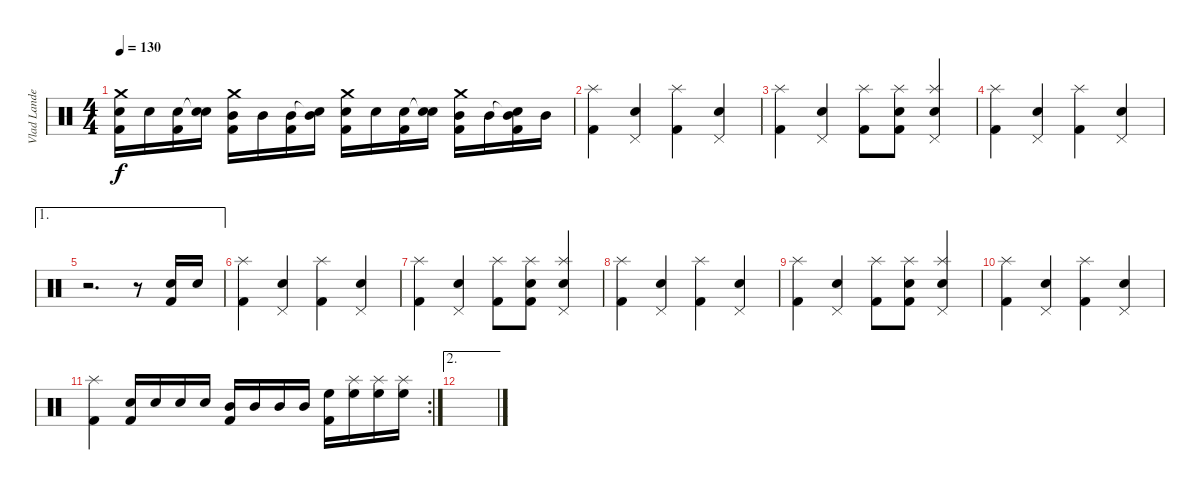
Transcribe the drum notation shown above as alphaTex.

\track ("Vlad Landeros" "Vlad Lande") {instrument percussion}
\staff {score}
\articulation defaults
\ts (4 4)
\tempo 130
\clef neutral
\ks c
("Crash medium (hit)" "Snare (hit) 2" "Kick (hit) 2").16{dy f} "Snare (hit) 2".16 ("Snare (hit) 2" "Kick (hit) 2").16 ("Snare (hit)"{t} "Snare (hit) 2").16 ("Crash medium (hit)" "Mid Tom (hit)" "Kick (hit) 2").16 "Mid Tom (hit)".16 ("Mid Tom (hit)" "Kick (hit) 2").16 ("Snare (hit)"{t} "Mid Tom (hit)").16 ("Crash medium (hit)" "Snare (hit) 2" "Kick (hit) 2").16 "Snare (hit) 2".16 ("Snare (hit) 2" "Kick (hit) 2").16 ("Snare (hit)"{t} "Snare (hit) 2").16 ("Crash medium (hit)" "Mid Tom (hit)" "Kick (hit) 2").16 "Mid Tom (hit)".16 ("Snare (hit)"{t} "Mid Tom (hit)" "Kick (hit) 2").16 "Mid Tom (hit)".16 |
("Splash (hit)" "Kick (hit) 2").4 ("Pedal Hi-Hat (hit)" "Snare (hit) 2").4 ("Splash (hit)" "Kick (hit) 2").4 ("Pedal Hi-Hat (hit)" "Snare (hit) 2").4 |
("Splash (hit)" "Kick (hit) 2").4 ("Pedal Hi-Hat (hit)" "Snare (hit) 2").4 ("Splash (hit)" "Kick (hit) 2").8 ("Splash (hit)" "Snare (hit) 2" "Kick (hit) 2").8 ("Splash (hit)" "Pedal Hi-Hat (hit)" "Snare (hit) 2").4 |
("Splash (hit)" "Kick (hit) 2").4 ("Pedal Hi-Hat (hit)" "Snare (hit) 2").4 ("Splash (hit)" "Kick (hit) 2").4 ("Pedal Hi-Hat (hit)" "Snare (hit) 2").4 |
\ae 1
r.2{d} r.8 ("Snare (hit) 2" "Kick (hit) 2").16 "Snare (hit) 2".16 |
("Splash (hit)" "Kick (hit) 2").4 ("Pedal Hi-Hat (hit)" "Snare (hit) 2").4 ("Splash (hit)" "Kick (hit) 2").4 ("Pedal Hi-Hat (hit)" "Snare (hit) 2").4 |
("Splash (hit)" "Kick (hit) 2").4 ("Pedal Hi-Hat (hit)" "Snare (hit) 2").4 ("Splash (hit)" "Kick (hit) 2").8 ("Splash (hit)" "Snare (hit) 2" "Kick (hit) 2").8 ("Splash (hit)" "Pedal Hi-Hat (hit)" "Snare (hit) 2").4 |
("Splash (hit)" "Kick (hit) 2").4 ("Pedal Hi-Hat (hit)" "Snare (hit) 2").4 ("Splash (hit)" "Kick (hit) 2").4 ("Pedal Hi-Hat (hit)" "Snare (hit) 2").4 |
("Splash (hit)" "Kick (hit) 2").4 ("Pedal Hi-Hat (hit)" "Snare (hit) 2").4 ("Splash (hit)" "Kick (hit) 2").8 ("Splash (hit)" "Snare (hit) 2" "Kick (hit) 2").8 ("Splash (hit)" "Pedal Hi-Hat (hit)" "Snare (hit) 2").4 |
("Splash (hit)" "Kick (hit) 2").4 ("Pedal Hi-Hat (hit)" "Snare (hit) 2").4 ("Splash (hit)" "Kick (hit) 2").4 ("Pedal Hi-Hat (hit)" "Snare (hit) 2").4 |
\rc 2
("Splash (hit)" "Kick (hit) 2").4 ("Snare (hit) 2" "Kick (hit) 2").16 "Snare (hit) 2".16 "Snare (hit) 2".16 "Snare (hit) 2".16 ("Mid Tom (hit)" "Kick (hit) 2").16 "Mid Tom (hit)".16 "Mid Tom (hit)".16 "Mid Tom (hit)".16 ("High Floor Tom (hit)" "Kick (hit) 2").16 ("Splash (hit)" "High Floor Tom (hit)").16 ("Splash (hit)" "High Floor Tom (hit)").16 ("Splash (hit)" "High Floor Tom (hit)").16 |
\ae 2
